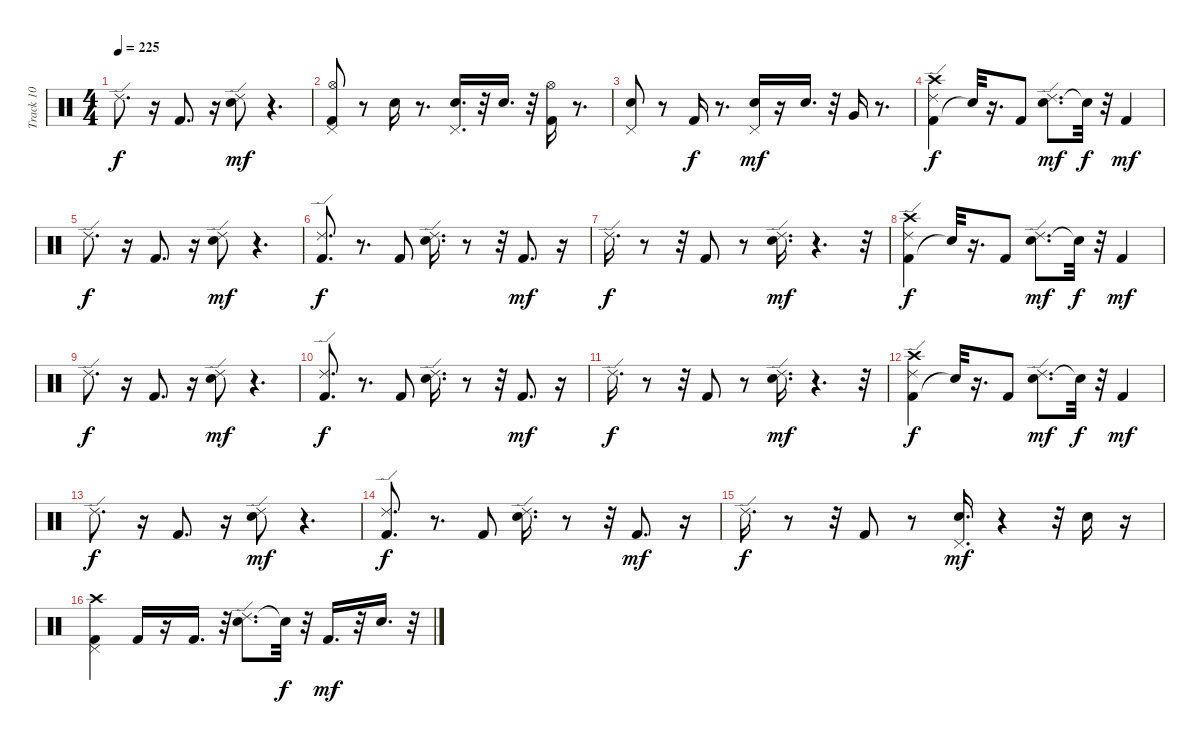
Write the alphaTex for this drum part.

\track ("Track 10" "Track 10") {instrument percussion}
\staff {score}
\articulation defaults
\ts (4 4)
\tempo 225
\clef neutral
\ks c "Ride (edge) 2".8{d dy f}
r.16 "Kick (hit) 2".8{d} r.16 ("Electric Snare (hit)" "Ride (edge) 2").8{dy mf} r.4{d} |
("Kick (hit) 2" "Hi-Hat (open)" "Pedal Hi-Hat (hit)").8 r.8 "Electric Snare (hit)".16 r.8{d} ("Electric Snare (hit)" "Pedal Hi-Hat (hit)").16{d} r.32 "Electric Snare (hit)".16{d} r.32 ("Kick (hit) 2" "Hi-Hat (open)").16 r.8{d} |
("Electric Snare (hit)" "Pedal Hi-Hat (hit)").8 r.8 "Kick (hit) 2".16{dy f} r.8{d} ("Electric Snare (hit)" "Pedal Hi-Hat (hit)").16{dy mf} r.16 "Electric Snare (hit)".16{d} r.32 "Very Low Tom (hit)".16 r.8{d} |
("Kick (hit) 2" "Crash high (hit)" "Ride (edge) 2").4{dy f} "Snare (hit)"{t}.32 r.16{d} "Kick (hit) 2".8 ("Electric Snare (hit)" "Ride (edge) 2").8{d dy mf} "Snare (hit)"{t}.32{dy f} r.32 "Kick (hit) 2".4{dy mf} |
"Ride (edge) 2".8{d dy f} r.16 "Kick (hit) 2".8{d} r.16 ("Electric Snare (hit)" "Ride (edge) 2").8{dy mf} r.4{d} |
("Kick (hit) 2" "Ride (edge) 2").8{d dy f} r.8{d} "Kick (hit) 2".8 ("Electric Snare (hit)" "Ride (edge) 2").16{d} r.8 r.32 "Kick (hit) 2".8{d dy mf} r.16 |
"Ride (edge) 2".16{d dy f} r.8 r.32 "Kick (hit) 2".8 r.8 ("Electric Snare (hit)" "Ride (edge) 2").16{d dy mf} r.4{d} r.32 |
("Kick (hit) 2" "Crash high (hit)" "Ride (edge) 2").4{dy f} "Snare (hit)"{t}.32 r.16{d} "Kick (hit) 2".8 ("Electric Snare (hit)" "Ride (edge) 2").8{d dy mf} "Snare (hit)"{t}.32{dy f} r.32 "Kick (hit) 2".4{dy mf} |
"Ride (edge) 2".8{d dy f} r.16 "Kick (hit) 2".8{d} r.16 ("Electric Snare (hit)" "Ride (edge) 2").8{dy mf} r.4{d} |
("Kick (hit) 2" "Ride (edge) 2").8{d dy f} r.8{d} "Kick (hit) 2".8 ("Electric Snare (hit)" "Ride (edge) 2").16{d} r.8 r.32 "Kick (hit) 2".8{d dy mf} r.16 |
"Ride (edge) 2".16{d dy f} r.8 r.32 "Kick (hit) 2".8 r.8 ("Electric Snare (hit)" "Ride (edge) 2").16{d dy mf} r.4{d} r.32 |
("Kick (hit) 2" "Crash high (hit)" "Ride (edge) 2").4{dy f} "Snare (hit)"{t}.32 r.16{d} "Kick (hit) 2".8 ("Electric Snare (hit)" "Ride (edge) 2").8{d dy mf} "Snare (hit)"{t}.32{dy f} r.32 "Kick (hit) 2".4{dy mf} |
"Ride (edge) 2".8{d dy f} r.16 "Kick (hit) 2".8{d} r.16 ("Electric Snare (hit)" "Ride (edge) 2").8{dy mf} r.4{d} |
("Kick (hit) 2" "Ride (edge) 2").8{d dy f} r.8{d} "Kick (hit) 2".8 ("Electric Snare (hit)" "Ride (edge) 2").16{d} r.8 r.32 "Kick (hit) 2".8{d dy mf} r.16 |
"Ride (edge) 2".16{d dy f} r.8 r.32 "Kick (hit) 2".8 r.8 ("Electric Snare (hit)" "Pedal Hi-Hat (hit)").16{d dy mf} r.4 r.32 "Electric Snare (hit)".16 r.16 |
("Kick (hit) 2" "Crash high (hit)" "Pedal Hi-Hat (hit)").4 "Kick (hit) 2".16 r.16 "Kick (hit) 2".16{d} r.32 ("Ride (edge) 2" "Electric Snare (hit)").8{d} "Snare (hit)"{t}.32{dy f} r.32 "Kick (hit) 2".16{d dy mf} r.32 "Electric Snare (hit)".16{d} r.32
